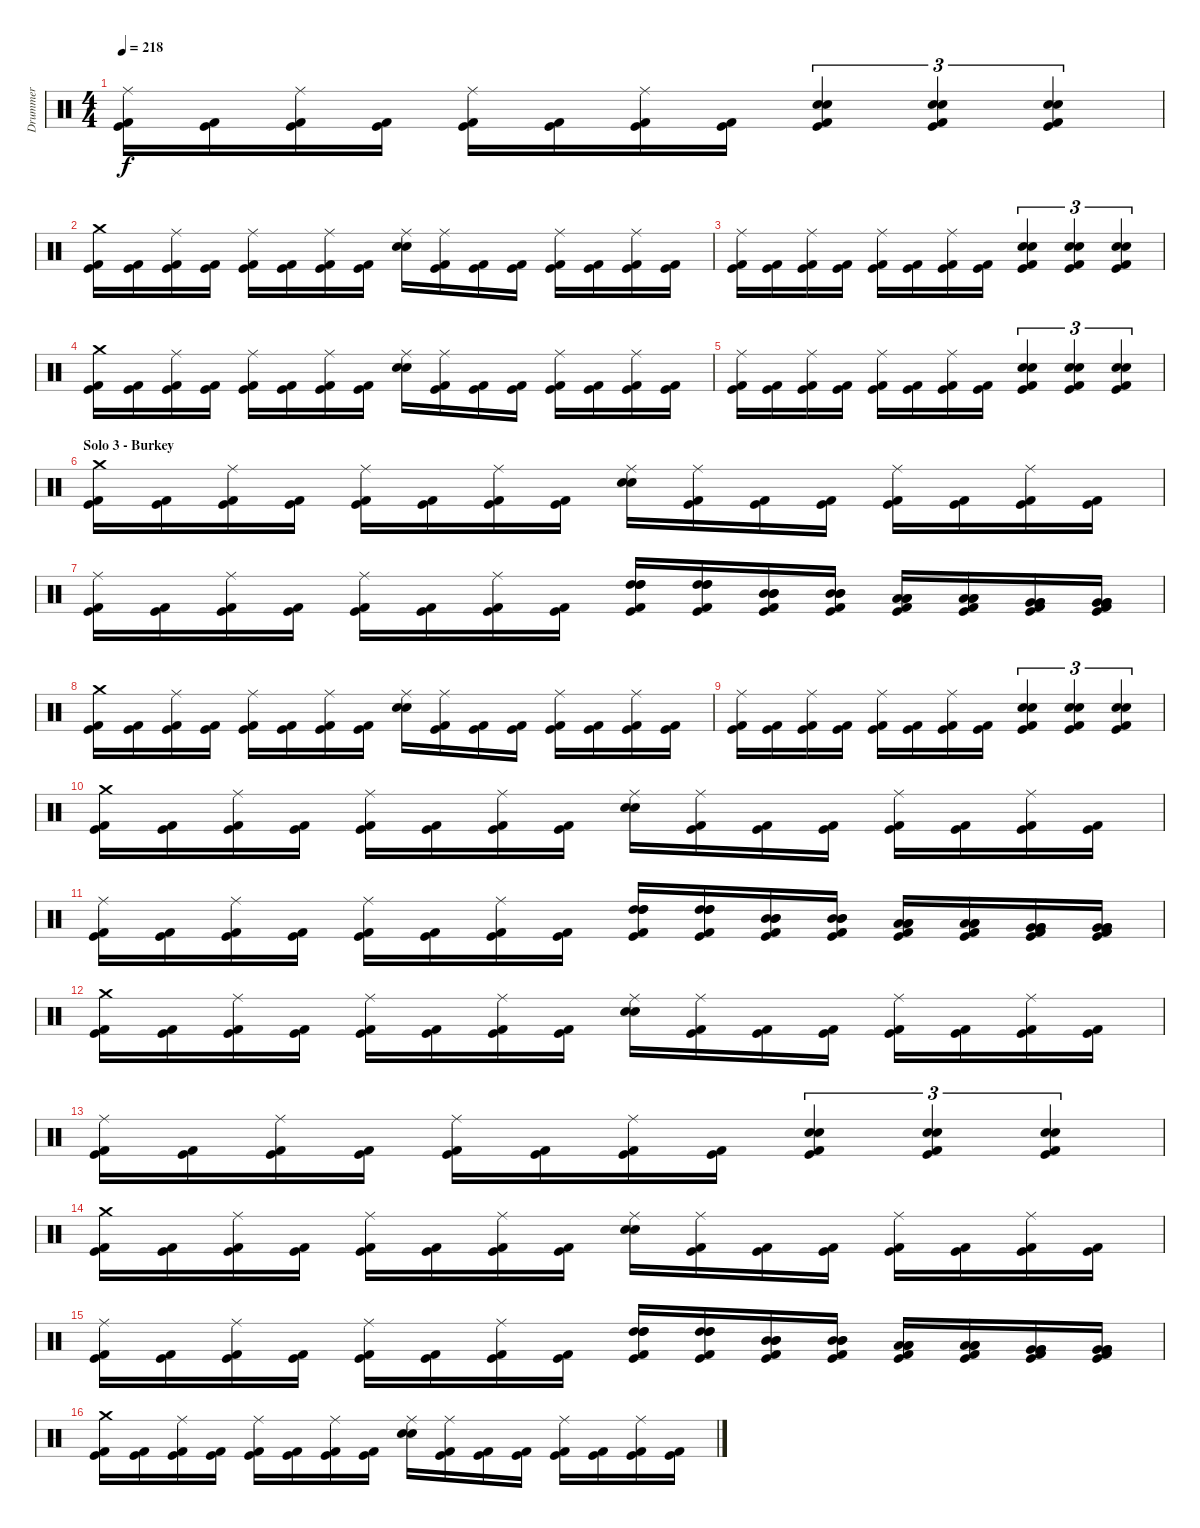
\track ("Drummer" "Drummer") {instrument percussion}
\staff {score}
\articulation defaults
\ts (4 4)
\tempo 218
\clef neutral
\ks c
("Ride (middle)" "Kick (hit)" "Kick (hit) 2").16{dy f} ("Kick (hit)" "Kick (hit) 2").16 ("Ride (middle)" "Kick (hit)" "Kick (hit) 2").16 ("Kick (hit)" "Kick (hit) 2").16 ("Ride (middle)" "Kick (hit)" "Kick (hit) 2").16 ("Kick (hit)" "Kick (hit) 2").16 ("Ride (middle)" "Kick (hit)" "Kick (hit) 2").16 ("Kick (hit)" "Kick (hit) 2").16 ("Electric Snare (hit)" "Snare (hit) 2" "Kick (hit) 2" "Kick (hit)").4{tu (3 2)} ("Electric Snare (hit)" "Snare (hit) 2" "Kick (hit)" "Kick (hit) 2").4{tu (3 2)} ("Electric Snare (hit)" "Snare (hit) 2" "Kick (hit)" "Kick (hit) 2").4{tu (3 2)} |
("Crash medium (hit)" "Kick (hit)" "Kick (hit) 2").16 ("Kick (hit)" "Kick (hit) 2").16 ("Ride (middle)" "Kick (hit)" "Kick (hit) 2").16 ("Kick (hit)" "Kick (hit) 2").16 ("Ride (middle)" "Kick (hit)" "Kick (hit) 2").16 ("Kick (hit)" "Kick (hit) 2").16 ("Ride (middle)" "Kick (hit)" "Kick (hit) 2").16 ("Kick (hit)" "Kick (hit) 2").16 ("Ride (middle)" "Snare (hit) 2" "Electric Snare (hit)").16 ("Ride (middle)" "Kick (hit)" "Kick (hit) 2").16 ("Kick (hit)" "Kick (hit) 2").16 ("Kick (hit)" "Kick (hit) 2").16 ("Ride (middle)" "Kick (hit)" "Kick (hit) 2").16 ("Kick (hit)" "Kick (hit) 2").16 ("Ride (middle)" "Kick (hit)" "Kick (hit) 2").16 ("Kick (hit)" "Kick (hit) 2").16 |
("Ride (middle)" "Kick (hit)" "Kick (hit) 2").16 ("Kick (hit)" "Kick (hit) 2").16 ("Ride (middle)" "Kick (hit)" "Kick (hit) 2").16 ("Kick (hit)" "Kick (hit) 2").16 ("Ride (middle)" "Kick (hit)" "Kick (hit) 2").16 ("Kick (hit)" "Kick (hit) 2").16 ("Ride (middle)" "Kick (hit)" "Kick (hit) 2").16 ("Kick (hit)" "Kick (hit) 2").16 ("Electric Snare (hit)" "Snare (hit) 2" "Kick (hit) 2" "Kick (hit)").4{tu (3 2)} ("Electric Snare (hit)" "Snare (hit) 2" "Kick (hit)" "Kick (hit) 2").4{tu (3 2)} ("Electric Snare (hit)" "Snare (hit) 2" "Kick (hit)" "Kick (hit) 2").4{tu (3 2)} |
("Crash medium (hit)" "Kick (hit)" "Kick (hit) 2").16 ("Kick (hit)" "Kick (hit) 2").16 ("Ride (middle)" "Kick (hit)" "Kick (hit) 2").16 ("Kick (hit)" "Kick (hit) 2").16 ("Ride (middle)" "Kick (hit)" "Kick (hit) 2").16 ("Kick (hit)" "Kick (hit) 2").16 ("Ride (middle)" "Kick (hit)" "Kick (hit) 2").16 ("Kick (hit)" "Kick (hit) 2").16 ("Ride (middle)" "Snare (hit) 2" "Electric Snare (hit)").16 ("Ride (middle)" "Kick (hit)" "Kick (hit) 2").16 ("Kick (hit)" "Kick (hit) 2").16 ("Kick (hit)" "Kick (hit) 2").16 ("Ride (middle)" "Kick (hit)" "Kick (hit) 2").16 ("Kick (hit)" "Kick (hit) 2").16 ("Ride (middle)" "Kick (hit)" "Kick (hit) 2").16 ("Kick (hit)" "Kick (hit) 2").16 |
("Ride (middle)" "Kick (hit)" "Kick (hit) 2").16 ("Kick (hit)" "Kick (hit) 2").16 ("Ride (middle)" "Kick (hit)" "Kick (hit) 2").16 ("Kick (hit)" "Kick (hit) 2").16 ("Ride (middle)" "Kick (hit)" "Kick (hit) 2").16 ("Kick (hit)" "Kick (hit) 2").16 ("Ride (middle)" "Kick (hit)" "Kick (hit) 2").16 ("Kick (hit)" "Kick (hit) 2").16 ("Electric Snare (hit)" "Snare (hit) 2" "Kick (hit) 2" "Kick (hit)").4{tu (3 2)} ("Electric Snare (hit)" "Snare (hit) 2" "Kick (hit)" "Kick (hit) 2").4{tu (3 2)} ("Electric Snare (hit)" "Snare (hit) 2" "Kick (hit)" "Kick (hit) 2").4{tu (3 2)} |
\section ("" "Solo 3 - Burkey")
("Crash medium (hit)" "Kick (hit)" "Kick (hit) 2").16 ("Kick (hit)" "Kick (hit) 2").16 ("Ride (middle)" "Kick (hit)" "Kick (hit) 2").16 ("Kick (hit)" "Kick (hit) 2").16 ("Ride (middle)" "Kick (hit)" "Kick (hit) 2").16 ("Kick (hit)" "Kick (hit) 2").16 ("Ride (middle)" "Kick (hit)" "Kick (hit) 2").16 ("Kick (hit)" "Kick (hit) 2").16 ("Ride (middle)" "Snare (hit) 2" "Electric Snare (hit)").16 ("Ride (middle)" "Kick (hit)" "Kick (hit) 2").16 ("Kick (hit)" "Kick (hit) 2").16 ("Kick (hit)" "Kick (hit) 2").16 ("Ride (middle)" "Kick (hit)" "Kick (hit) 2").16 ("Kick (hit)" "Kick (hit) 2").16 ("Ride (middle)" "Kick (hit)" "Kick (hit) 2").16 ("Kick (hit)" "Kick (hit) 2").16 |
("Ride (middle)" "Kick (hit)" "Kick (hit) 2").16 ("Kick (hit)" "Kick (hit) 2").16 ("Ride (middle)" "Kick (hit)" "Kick (hit) 2").16 ("Kick (hit)" "Kick (hit) 2").16 ("Ride (middle)" "Kick (hit)" "Kick (hit) 2").16 ("Kick (hit)" "Kick (hit) 2").16 ("Ride (middle)" "Kick (hit)" "Kick (hit) 2").16 ("Kick (hit)" "Kick (hit) 2").16 ("High Tom (hit)" "High Tom (hit)" "High Tom (hit)" "Kick (hit)" "Kick (hit) 2").16 ("High Tom (hit)" "High Tom (hit)" "High Tom (hit)" "Kick (hit)" "Kick (hit) 2").16 ("Mid Tom (hit)" "Mid Tom (hit)" "Mid Tom (hit)" "Kick (hit)" "Kick (hit) 2").16 ("Mid Tom (hit)" "Mid Tom (hit)" "Mid Tom (hit)" "Kick (hit)" "Kick (hit) 2").16 ("Low Tom (hit)" "Low Tom (hit)" "Low Tom (hit)" "Kick (hit)" "Kick (hit) 2").16 ("Low Tom (hit)" "Low Tom (hit)" "Low Tom (hit)" "Kick (hit)" "Kick (hit) 2").16 ("Very Low Tom (hit)" "Very Low Tom (hit)" "Very Low Tom (hit)" "Kick (hit)" "Kick (hit) 2").16 ("Very Low Tom (hit)" "Very Low Tom (hit)" "Very Low Tom (hit)" "Kick (hit)" "Kick (hit) 2").16 |
("Crash medium (hit)" "Kick (hit)" "Kick (hit) 2").16 ("Kick (hit)" "Kick (hit) 2").16 ("Ride (middle)" "Kick (hit)" "Kick (hit) 2").16 ("Kick (hit)" "Kick (hit) 2").16 ("Ride (middle)" "Kick (hit)" "Kick (hit) 2").16 ("Kick (hit)" "Kick (hit) 2").16 ("Ride (middle)" "Kick (hit)" "Kick (hit) 2").16 ("Kick (hit)" "Kick (hit) 2").16 ("Ride (middle)" "Snare (hit) 2" "Electric Snare (hit)").16 ("Ride (middle)" "Kick (hit)" "Kick (hit) 2").16 ("Kick (hit)" "Kick (hit) 2").16 ("Kick (hit)" "Kick (hit) 2").16 ("Ride (middle)" "Kick (hit)" "Kick (hit) 2").16 ("Kick (hit)" "Kick (hit) 2").16 ("Ride (middle)" "Kick (hit)" "Kick (hit) 2").16 ("Kick (hit)" "Kick (hit) 2").16 |
("Ride (middle)" "Kick (hit)" "Kick (hit) 2").16 ("Kick (hit)" "Kick (hit) 2").16 ("Ride (middle)" "Kick (hit)" "Kick (hit) 2").16 ("Kick (hit)" "Kick (hit) 2").16 ("Ride (middle)" "Kick (hit)" "Kick (hit) 2").16 ("Kick (hit)" "Kick (hit) 2").16 ("Ride (middle)" "Kick (hit)" "Kick (hit) 2").16 ("Kick (hit)" "Kick (hit) 2").16 ("Electric Snare (hit)" "Snare (hit) 2" "Kick (hit) 2" "Kick (hit)").4{tu (3 2)} ("Electric Snare (hit)" "Snare (hit) 2" "Kick (hit)" "Kick (hit) 2").4{tu (3 2)} ("Electric Snare (hit)" "Snare (hit) 2" "Kick (hit)" "Kick (hit) 2").4{tu (3 2)} |
("Crash medium (hit)" "Kick (hit)" "Kick (hit) 2").16 ("Kick (hit)" "Kick (hit) 2").16 ("Ride (middle)" "Kick (hit)" "Kick (hit) 2").16 ("Kick (hit)" "Kick (hit) 2").16 ("Ride (middle)" "Kick (hit)" "Kick (hit) 2").16 ("Kick (hit)" "Kick (hit) 2").16 ("Ride (middle)" "Kick (hit)" "Kick (hit) 2").16 ("Kick (hit)" "Kick (hit) 2").16 ("Ride (middle)" "Snare (hit) 2" "Electric Snare (hit)").16 ("Ride (middle)" "Kick (hit)" "Kick (hit) 2").16 ("Kick (hit)" "Kick (hit) 2").16 ("Kick (hit)" "Kick (hit) 2").16 ("Ride (middle)" "Kick (hit)" "Kick (hit) 2").16 ("Kick (hit)" "Kick (hit) 2").16 ("Ride (middle)" "Kick (hit)" "Kick (hit) 2").16 ("Kick (hit)" "Kick (hit) 2").16 |
("Ride (middle)" "Kick (hit)" "Kick (hit) 2").16 ("Kick (hit)" "Kick (hit) 2").16 ("Ride (middle)" "Kick (hit)" "Kick (hit) 2").16 ("Kick (hit)" "Kick (hit) 2").16 ("Ride (middle)" "Kick (hit)" "Kick (hit) 2").16 ("Kick (hit)" "Kick (hit) 2").16 ("Ride (middle)" "Kick (hit)" "Kick (hit) 2").16 ("Kick (hit)" "Kick (hit) 2").16 ("High Tom (hit)" "High Tom (hit)" "High Tom (hit)" "Kick (hit)" "Kick (hit) 2").16 ("High Tom (hit)" "High Tom (hit)" "High Tom (hit)" "Kick (hit)" "Kick (hit) 2").16 ("Mid Tom (hit)" "Mid Tom (hit)" "Mid Tom (hit)" "Kick (hit)" "Kick (hit) 2").16 ("Mid Tom (hit)" "Mid Tom (hit)" "Mid Tom (hit)" "Kick (hit)" "Kick (hit) 2").16 ("Low Tom (hit)" "Low Tom (hit)" "Low Tom (hit)" "Kick (hit)" "Kick (hit) 2").16 ("Low Tom (hit)" "Low Tom (hit)" "Low Tom (hit)" "Kick (hit)" "Kick (hit) 2").16 ("Very Low Tom (hit)" "Very Low Tom (hit)" "Very Low Tom (hit)" "Kick (hit)" "Kick (hit) 2").16 ("Very Low Tom (hit)" "Very Low Tom (hit)" "Very Low Tom (hit)" "Kick (hit)" "Kick (hit) 2").16 |
("Crash medium (hit)" "Kick (hit)" "Kick (hit) 2").16 ("Kick (hit)" "Kick (hit) 2").16 ("Ride (middle)" "Kick (hit)" "Kick (hit) 2").16 ("Kick (hit)" "Kick (hit) 2").16 ("Ride (middle)" "Kick (hit)" "Kick (hit) 2").16 ("Kick (hit)" "Kick (hit) 2").16 ("Ride (middle)" "Kick (hit)" "Kick (hit) 2").16 ("Kick (hit)" "Kick (hit) 2").16 ("Ride (middle)" "Snare (hit) 2" "Electric Snare (hit)").16 ("Ride (middle)" "Kick (hit)" "Kick (hit) 2").16 ("Kick (hit)" "Kick (hit) 2").16 ("Kick (hit)" "Kick (hit) 2").16 ("Ride (middle)" "Kick (hit)" "Kick (hit) 2").16 ("Kick (hit)" "Kick (hit) 2").16 ("Ride (middle)" "Kick (hit)" "Kick (hit) 2").16 ("Kick (hit)" "Kick (hit) 2").16 |
("Ride (middle)" "Kick (hit)" "Kick (hit) 2").16 ("Kick (hit)" "Kick (hit) 2").16 ("Ride (middle)" "Kick (hit)" "Kick (hit) 2").16 ("Kick (hit)" "Kick (hit) 2").16 ("Ride (middle)" "Kick (hit)" "Kick (hit) 2").16 ("Kick (hit)" "Kick (hit) 2").16 ("Ride (middle)" "Kick (hit)" "Kick (hit) 2").16 ("Kick (hit)" "Kick (hit) 2").16 ("Electric Snare (hit)" "Snare (hit) 2" "Kick (hit) 2" "Kick (hit)").4{tu (3 2)} ("Electric Snare (hit)" "Snare (hit) 2" "Kick (hit)" "Kick (hit) 2").4{tu (3 2)} ("Electric Snare (hit)" "Snare (hit) 2" "Kick (hit)" "Kick (hit) 2").4{tu (3 2)} |
("Crash medium (hit)" "Kick (hit)" "Kick (hit) 2").16 ("Kick (hit)" "Kick (hit) 2").16 ("Ride (middle)" "Kick (hit)" "Kick (hit) 2").16 ("Kick (hit)" "Kick (hit) 2").16 ("Ride (middle)" "Kick (hit)" "Kick (hit) 2").16 ("Kick (hit)" "Kick (hit) 2").16 ("Ride (middle)" "Kick (hit)" "Kick (hit) 2").16 ("Kick (hit)" "Kick (hit) 2").16 ("Ride (middle)" "Snare (hit) 2" "Electric Snare (hit)").16 ("Ride (middle)" "Kick (hit)" "Kick (hit) 2").16 ("Kick (hit)" "Kick (hit) 2").16 ("Kick (hit)" "Kick (hit) 2").16 ("Ride (middle)" "Kick (hit)" "Kick (hit) 2").16 ("Kick (hit)" "Kick (hit) 2").16 ("Ride (middle)" "Kick (hit)" "Kick (hit) 2").16 ("Kick (hit)" "Kick (hit) 2").16 |
("Ride (middle)" "Kick (hit)" "Kick (hit) 2").16 ("Kick (hit)" "Kick (hit) 2").16 ("Ride (middle)" "Kick (hit)" "Kick (hit) 2").16 ("Kick (hit)" "Kick (hit) 2").16 ("Ride (middle)" "Kick (hit)" "Kick (hit) 2").16 ("Kick (hit)" "Kick (hit) 2").16 ("Ride (middle)" "Kick (hit)" "Kick (hit) 2").16 ("Kick (hit)" "Kick (hit) 2").16 ("High Tom (hit)" "High Tom (hit)" "High Tom (hit)" "Kick (hit)" "Kick (hit) 2").16 ("High Tom (hit)" "High Tom (hit)" "High Tom (hit)" "Kick (hit)" "Kick (hit) 2").16 ("Mid Tom (hit)" "Mid Tom (hit)" "Mid Tom (hit)" "Kick (hit)" "Kick (hit) 2").16 ("Mid Tom (hit)" "Mid Tom (hit)" "Mid Tom (hit)" "Kick (hit)" "Kick (hit) 2").16 ("Low Tom (hit)" "Low Tom (hit)" "Low Tom (hit)" "Kick (hit)" "Kick (hit) 2").16 ("Low Tom (hit)" "Low Tom (hit)" "Low Tom (hit)" "Kick (hit)" "Kick (hit) 2").16 ("Very Low Tom (hit)" "Very Low Tom (hit)" "Very Low Tom (hit)" "Kick (hit)" "Kick (hit) 2").16 ("Very Low Tom (hit)" "Very Low Tom (hit)" "Very Low Tom (hit)" "Kick (hit)" "Kick (hit) 2").16 |
("Crash medium (hit)" "Kick (hit)" "Kick (hit) 2").16 ("Kick (hit)" "Kick (hit) 2").16 ("Ride (middle)" "Kick (hit)" "Kick (hit) 2").16 ("Kick (hit)" "Kick (hit) 2").16 ("Ride (middle)" "Kick (hit)" "Kick (hit) 2").16 ("Kick (hit)" "Kick (hit) 2").16 ("Ride (middle)" "Kick (hit)" "Kick (hit) 2").16 ("Kick (hit)" "Kick (hit) 2").16 ("Ride (middle)" "Snare (hit) 2" "Electric Snare (hit)").16 ("Ride (middle)" "Kick (hit)" "Kick (hit) 2").16 ("Kick (hit)" "Kick (hit) 2").16 ("Kick (hit)" "Kick (hit) 2").16 ("Ride (middle)" "Kick (hit)" "Kick (hit) 2").16 ("Kick (hit)" "Kick (hit) 2").16 ("Ride (middle)" "Kick (hit)" "Kick (hit) 2").16 ("Kick (hit)" "Kick (hit) 2").16
